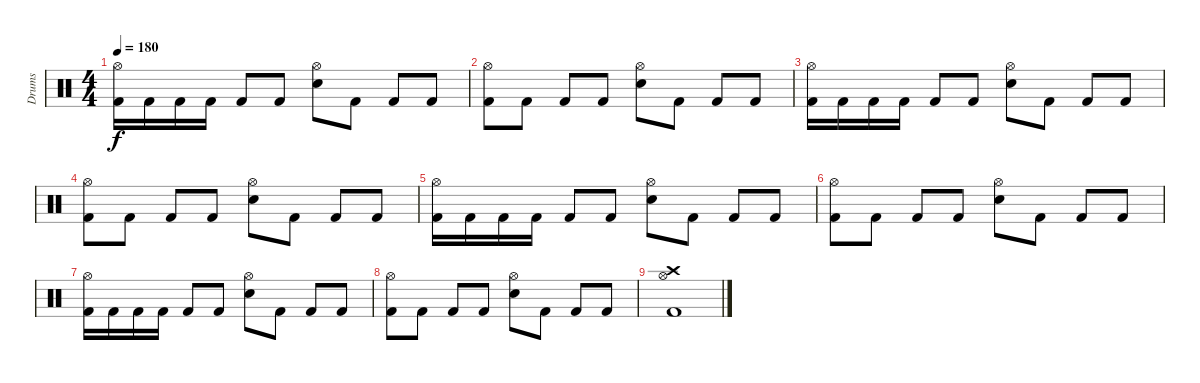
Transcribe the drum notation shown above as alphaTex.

\track ("Drums" "Drums") {instrument percussion}
\staff {score}
\articulation defaults
\ts (4 4)
\tempo 180
\clef neutral
\ks c
("Hi-Hat (open)" "Kick (hit) 2").16{dy f} "Kick (hit) 2".16 "Kick (hit) 2".16 "Kick (hit) 2".16 "Kick (hit) 2".8 "Kick (hit) 2".8 ("Hi-Hat (open)" "Electric Snare (hit)").8 "Kick (hit) 2".8 "Kick (hit) 2".8 "Kick (hit) 2".8 |
("Hi-Hat (open)" "Kick (hit) 2").8 "Kick (hit) 2".8 "Kick (hit) 2".8 "Kick (hit) 2".8 ("Hi-Hat (open)" "Electric Snare (hit)").8 "Kick (hit) 2".8 "Kick (hit) 2".8 "Kick (hit) 2".8 |
("Hi-Hat (open)" "Kick (hit) 2").16 "Kick (hit) 2".16 "Kick (hit) 2".16 "Kick (hit) 2".16 "Kick (hit) 2".8 "Kick (hit) 2".8 ("Hi-Hat (open)" "Electric Snare (hit)").8 "Kick (hit) 2".8 "Kick (hit) 2".8 "Kick (hit) 2".8 |
("Hi-Hat (open)" "Kick (hit) 2").8 "Kick (hit) 2".8 "Kick (hit) 2".8 "Kick (hit) 2".8 ("Hi-Hat (open)" "Electric Snare (hit)").8 "Kick (hit) 2".8 "Kick (hit) 2".8 "Kick (hit) 2".8 |
("Hi-Hat (open)" "Kick (hit) 2").16 "Kick (hit) 2".16 "Kick (hit) 2".16 "Kick (hit) 2".16 "Kick (hit) 2".8 "Kick (hit) 2".8 ("Hi-Hat (open)" "Electric Snare (hit)").8 "Kick (hit) 2".8 "Kick (hit) 2".8 "Kick (hit) 2".8 |
("Hi-Hat (open)" "Kick (hit) 2").8 "Kick (hit) 2".8 "Kick (hit) 2".8 "Kick (hit) 2".8 ("Hi-Hat (open)" "Electric Snare (hit)").8 "Kick (hit) 2".8 "Kick (hit) 2".8 "Kick (hit) 2".8 |
("Hi-Hat (open)" "Kick (hit) 2").16 "Kick (hit) 2".16 "Kick (hit) 2".16 "Kick (hit) 2".16 "Kick (hit) 2".8 "Kick (hit) 2".8 ("Hi-Hat (open)" "Electric Snare (hit)").8 "Kick (hit) 2".8 "Kick (hit) 2".8 "Kick (hit) 2".8 |
("Hi-Hat (open)" "Kick (hit) 2").8 "Kick (hit) 2".8 "Kick (hit) 2".8 "Kick (hit) 2".8 ("Hi-Hat (open)" "Electric Snare (hit)").8 "Kick (hit) 2".8 "Kick (hit) 2".8 "Kick (hit) 2".8 |
("Crash high (hit)" "Hi-Hat (open)" "Kick (hit) 2").1
